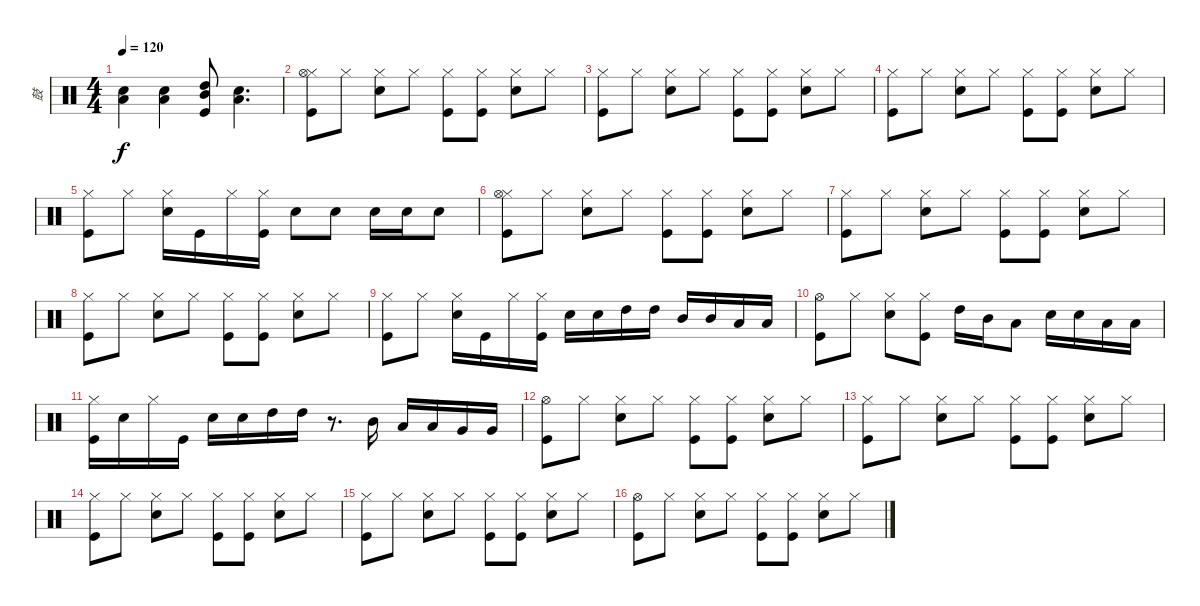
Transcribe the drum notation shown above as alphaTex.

\track ("鼓" "鼓") {instrument percussion}
\staff {score}
\articulation defaults
\ts (4 4)
\tempo 120
\clef neutral
\ks c
("Low Floor Tom (hit)" "Snare (hit) 2").4{dy f} ("Low Floor Tom (hit)" "Snare (hit) 2").4 ("High Tom (hit)" "Mid Tom (hit)" "Kick (hit)").8 ("Low Floor Tom (hit)" "Snare (hit) 2").4{d} |
("Hi-Hat (closed)" "Hi-Hat (open)" "Kick (hit)").8 "Hi-Hat (closed)".8 ("Hi-Hat (closed)" "Snare (hit) 2").8 "Hi-Hat (closed)".8 ("Hi-Hat (closed)" "Kick (hit)").8 ("Hi-Hat (closed)" "Kick (hit)").8 ("Hi-Hat (closed)" "Snare (hit) 2").8 "Hi-Hat (closed)".8 |
("Hi-Hat (closed)" "Kick (hit)").8 "Hi-Hat (closed)".8 ("Hi-Hat (closed)" "Snare (hit) 2").8 "Hi-Hat (closed)".8 ("Hi-Hat (closed)" "Kick (hit)").8 ("Hi-Hat (closed)" "Kick (hit)").8 ("Hi-Hat (closed)" "Snare (hit) 2").8 "Hi-Hat (closed)".8 |
("Hi-Hat (closed)" "Kick (hit)").8 "Hi-Hat (closed)".8 ("Hi-Hat (closed)" "Snare (hit) 2").8 "Hi-Hat (closed)".8 ("Hi-Hat (closed)" "Kick (hit)").8 ("Hi-Hat (closed)" "Kick (hit)").8 ("Hi-Hat (closed)" "Snare (hit) 2").8 "Hi-Hat (closed)".8 |
("Hi-Hat (closed)" "Kick (hit)").8 "Hi-Hat (closed)".8 ("Hi-Hat (closed)" "Snare (hit) 2").16 "Kick (hit)".16 "Hi-Hat (closed)".16 ("Hi-Hat (closed)" "Kick (hit)").16 "Snare (hit) 2".8 "Snare (hit) 2".8 "Snare (hit) 2".16 "Snare (hit) 2".16 "Snare (hit) 2".8 |
("Hi-Hat (closed)" "Hi-Hat (open)" "Kick (hit)").8 "Hi-Hat (closed)".8 ("Hi-Hat (closed)" "Snare (hit) 2").8 "Hi-Hat (closed)".8 ("Hi-Hat (closed)" "Kick (hit)").8 ("Hi-Hat (closed)" "Kick (hit)").8 ("Hi-Hat (closed)" "Snare (hit) 2").8 "Hi-Hat (closed)".8 |
("Hi-Hat (closed)" "Kick (hit)").8 "Hi-Hat (closed)".8 ("Hi-Hat (closed)" "Snare (hit) 2").8 "Hi-Hat (closed)".8 ("Hi-Hat (closed)" "Kick (hit)").8 ("Hi-Hat (closed)" "Kick (hit)").8 ("Hi-Hat (closed)" "Snare (hit) 2").8 "Hi-Hat (closed)".8 |
("Hi-Hat (closed)" "Kick (hit)").8 "Hi-Hat (closed)".8 ("Hi-Hat (closed)" "Snare (hit) 2").8 "Hi-Hat (closed)".8 ("Hi-Hat (closed)" "Kick (hit)").8 ("Hi-Hat (closed)" "Kick (hit)").8 ("Hi-Hat (closed)" "Snare (hit) 2").8 "Hi-Hat (closed)".8 |
("Hi-Hat (closed)" "Kick (hit)").8 "Hi-Hat (closed)".8 ("Hi-Hat (closed)" "Snare (hit) 2").16 "Kick (hit)".16 "Hi-Hat (closed)".16 ("Hi-Hat (closed)" "Kick (hit)").16 "Snare (hit) 2".16 "Snare (hit) 2".16 "High Tom (hit)".16 "High Tom (hit)".16 "Mid Tom (hit)".16 "Mid Tom (hit)".16 "Low Tom (hit)".16 "Low Tom (hit)".16 |
("Hi-Hat (open)" "Kick (hit)").8 "Hi-Hat (closed)".8 ("Hi-Hat (closed)" "Snare (hit) 2").8 ("Hi-Hat (closed)" "Kick (hit)").8 "High Tom (hit)".16 "Mid Tom (hit)".16 "Low Tom (hit)".8 "Snare (hit) 2".16 "Snare (hit) 2".16 "Low Tom (hit)".16 "Low Tom (hit)".16 |
("Hi-Hat (closed)" "Kick (hit)").16 "Snare (hit) 2".16 "Hi-Hat (closed)".16 "Kick (hit)".16 "Snare (hit) 2".16 "Snare (hit) 2".16 "High Tom (hit)".16 "High Tom (hit)".16 r.8{d} "Mid Tom (hit)".16 "Low Tom (hit)".16 "Low Tom (hit)".16 "Very Low Tom (hit)".16 "Very Low Tom (hit)".16 |
("Hi-Hat (open)" "Kick (hit)").8 "Hi-Hat (closed)".8 ("Hi-Hat (closed)" "Snare (hit) 2").8 "Hi-Hat (closed)".8 ("Hi-Hat (closed)" "Kick (hit)").8 ("Hi-Hat (closed)" "Kick (hit)").8 ("Hi-Hat (closed)" "Snare (hit) 2").8 "Hi-Hat (closed)".8 |
("Hi-Hat (closed)" "Kick (hit)").8 "Hi-Hat (closed)".8 ("Hi-Hat (closed)" "Snare (hit) 2").8 "Hi-Hat (closed)".8 ("Hi-Hat (closed)" "Kick (hit)").8 ("Hi-Hat (closed)" "Kick (hit)").8 ("Hi-Hat (closed)" "Snare (hit) 2").8 "Hi-Hat (closed)".8 |
("Hi-Hat (closed)" "Kick (hit)").8 "Hi-Hat (closed)".8 ("Hi-Hat (closed)" "Snare (hit) 2").8 "Hi-Hat (closed)".8 ("Hi-Hat (closed)" "Kick (hit)").8 ("Hi-Hat (closed)" "Kick (hit)").8 ("Hi-Hat (closed)" "Snare (hit) 2").8 "Hi-Hat (closed)".8 |
("Hi-Hat (closed)" "Kick (hit)").8 "Hi-Hat (closed)".8 ("Hi-Hat (closed)" "Snare (hit) 2").8 "Hi-Hat (closed)".8 ("Hi-Hat (closed)" "Kick (hit)").8 ("Hi-Hat (closed)" "Kick (hit)").8 ("Hi-Hat (closed)" "Snare (hit) 2").8 "Hi-Hat (closed)".8 |
("Hi-Hat (open)" "Kick (hit)").8 "Hi-Hat (closed)".8 ("Hi-Hat (closed)" "Snare (hit) 2").8 "Hi-Hat (closed)".8 ("Hi-Hat (closed)" "Kick (hit)").8 ("Hi-Hat (closed)" "Kick (hit)").8 ("Hi-Hat (closed)" "Snare (hit) 2").8 "Hi-Hat (closed)".8
